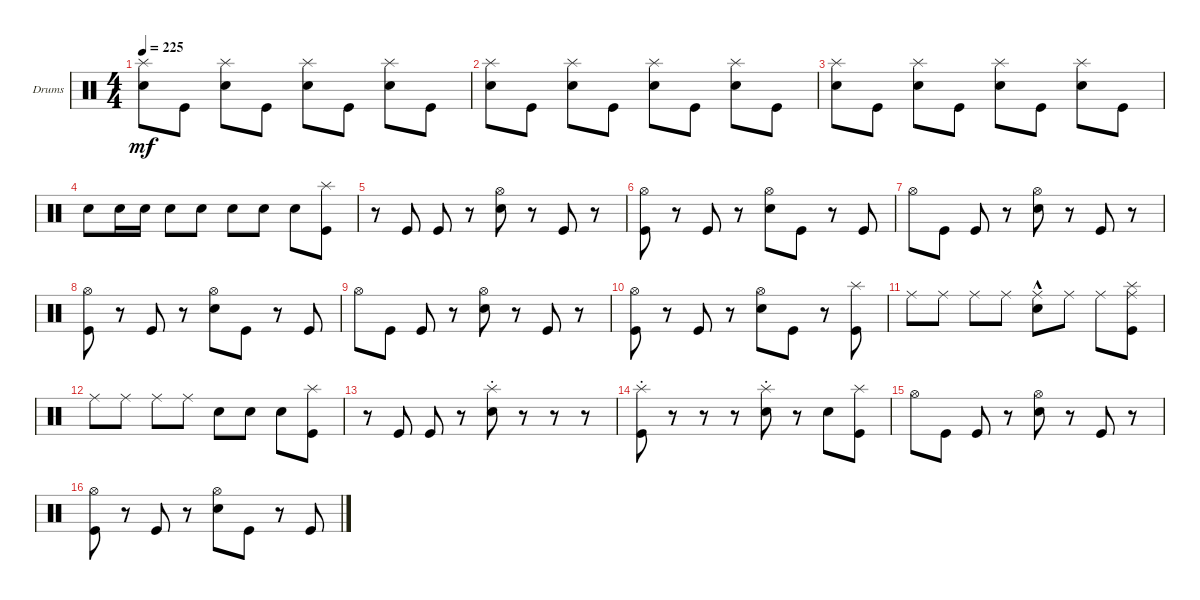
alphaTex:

\bracketExtendMode groupsimilarinstruments
\firstSystemTrackNameOrientation horizontal
\otherSystemsTrackNameOrientation horizontal
\track ("Drumkit" "Drums") {instrument percussion}
\staff {score}
\articulation defaults
\ts (4 4)
\tempo 225
\clef neutral
\ks c
("Snare (hit) 2" "Splash (hit)").8{dy mf} "Kick (hit)".8 ("Snare (hit) 2" "Splash (hit)").8 "Kick (hit)".8 ("Snare (hit) 2" "Splash (hit)").8 "Kick (hit)".8 ("Snare (hit) 2" "Splash (hit)").8 "Kick (hit)".8 |
("Snare (hit) 2" "Splash (hit)").8 "Kick (hit)".8 ("Snare (hit) 2" "Splash (hit)").8 "Kick (hit)".8 ("Snare (hit) 2" "Splash (hit)").8 "Kick (hit)".8 ("Snare (hit) 2" "Splash (hit)").8 "Kick (hit)".8 |
("Snare (hit) 2" "Splash (hit)").8 "Kick (hit)".8 ("Snare (hit) 2" "Splash (hit)").8 "Kick (hit)".8 ("Snare (hit) 2" "Splash (hit)").8 "Kick (hit)".8 ("Snare (hit) 2" "Splash (hit)").8 "Kick (hit)".8 |
"Snare (hit) 2".8 "Snare (hit) 2".16 "Snare (hit) 2".16 "Snare (hit) 2".8 "Snare (hit) 2".8 "Snare (hit) 2".8 "Snare (hit) 2".8 "Snare (hit) 2".8 ("Kick (hit)" "Splash (hit)").8 |
r.8 "Kick (hit)".8 "Kick (hit)".8 r.8 ("Snare (hit) 2" "Hi-Hat (open)").8 r.8 "Kick (hit)".8 r.8 |
("Kick (hit)" "Hi-Hat (open)").8 r.8 "Kick (hit)".8 r.8 ("Snare (hit) 2" "Hi-Hat (open)").8 "Kick (hit)".8 r.8 "Kick (hit)".8 |
"Hi-Hat (open)".8 "Kick (hit)".8 "Kick (hit)".8 r.8 ("Snare (hit) 2" "Hi-Hat (open)").8 r.8 "Kick (hit)".8 r.8 |
("Kick (hit)" "Hi-Hat (open)").8 r.8 "Kick (hit)".8 r.8 ("Snare (hit) 2" "Hi-Hat (open)").8 "Kick (hit)".8 r.8 "Kick (hit)".8 |
"Hi-Hat (open)".8 "Kick (hit)".8 "Kick (hit)".8 r.8 ("Snare (hit) 2" "Hi-Hat (open)").8 r.8 "Kick (hit)".8 r.8 |
("Kick (hit)" "Hi-Hat (open)").8 r.8 "Kick (hit)".8 r.8 ("Snare (hit) 2" "Hi-Hat (open)").8 "Kick (hit)".8 r.8 ("Kick (hit)" "Splash (hit)").8 |
"Ride (middle)".8 "Ride (middle)".8 "Ride (middle)".8 "Ride (middle)".8 ("Snare (hit) 2"{hac} "Ride (middle)").8 "Ride (middle)".8 "Ride (middle)".8 ("Kick (hit)" "Ride (middle)" "Splash (hit)").8 |
"Ride (middle)".8 "Ride (middle)".8 "Ride (middle)".8 "Ride (middle)".8 "Snare (hit) 2".8 "Snare (hit) 2".8 "Snare (hit) 2".8 ("Kick (hit)" "Splash (hit)").8 |
r.8 "Kick (hit)".8 "Kick (hit)".8 r.8 ("Snare (hit) 2" "Splash (hit)"{st}).8 r.8 r.8 r.8 |
("Kick (hit)" "Splash (hit)"{st}).8 r.8 r.8 r.8 ("Snare (hit) 2" "Splash (hit)"{st}).8 r.8 "Snare (hit) 2".8 ("Kick (hit)" "Splash (hit)").8 |
"Hi-Hat (open)".8 "Kick (hit)".8 "Kick (hit)".8 r.8 ("Snare (hit) 2" "Hi-Hat (open)").8 r.8 "Kick (hit)".8 r.8 |
("Kick (hit)" "Hi-Hat (open)").8 r.8 "Kick (hit)".8 r.8 ("Snare (hit) 2" "Hi-Hat (open)").8 "Kick (hit)".8 r.8 "Kick (hit)".8
